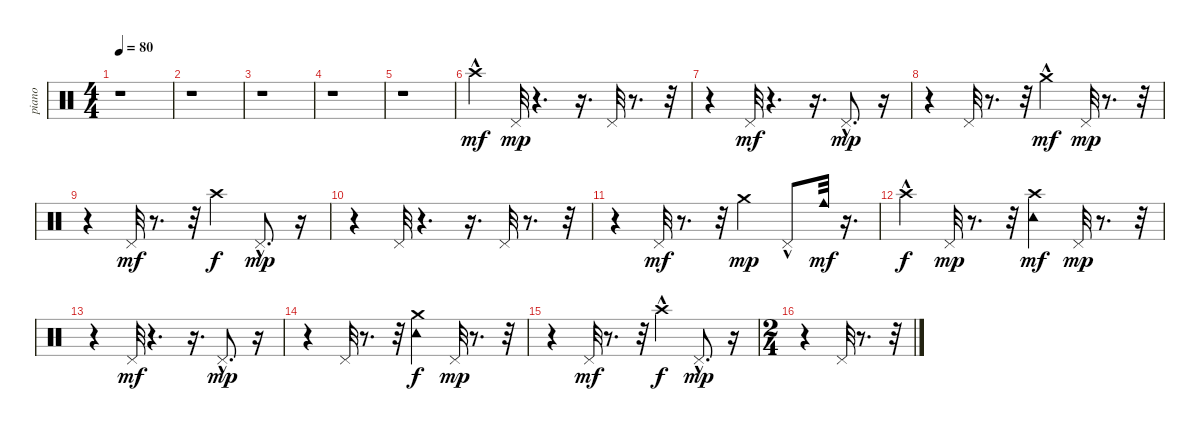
\track ("piano" "piano") {instrument percussion}
\staff {score}
\articulation defaults
\ts (4 4)
\tempo 80
\clef neutral
\ks c
r.1{dy mf} |
r.1 |
r.1 |
r.1 |
r.1 |
"Crash high (hit)"{hac}.4 "Pedal Hi-Hat (hit)".32{dy mp} r.4{d} r.16{d} "Pedal Hi-Hat (hit)".32 r.8{d} r.32 |
r.4 "Pedal Hi-Hat (hit)".32{dy mf} r.4{d} r.16{d} "Pedal Hi-Hat (hit)"{hac}.8{d dy mp} r.16 |
r.4 "Pedal Hi-Hat (hit)".32 r.8{d} r.32 "Crash medium (hit)"{hac}.4{dy mf} "Pedal Hi-Hat (hit)".32{dy mp} r.8{d} r.32 |
r.4 "Pedal Hi-Hat (hit)".32{dy mf} r.8{d} r.32 "Crash high (hit)".4{dy f} "Pedal Hi-Hat (hit)"{hac}.8{d dy mp} r.16 |
r.4 "Pedal Hi-Hat (hit)".32 r.4{d} r.16{d} "Pedal Hi-Hat (hit)".32 r.8{d} r.32 |
r.4 "Pedal Hi-Hat (hit)".32{dy mf} r.8{d} r.32 "Crash medium (hit)".4{dy mp} "Pedal Hi-Hat (hit)"{hac}.8 "Cowbell medium (hit)".32{dy mf} r.16{d} |
"Crash high (hit)"{hac}.4{dy f} "Pedal Hi-Hat (hit)".32{dy mp} r.8{d} r.32 ("Crash high (hit)" "Tambourine (hit)").4{dy mf} "Pedal Hi-Hat (hit)".32{dy mp} r.8{d} r.32 |
r.4 "Pedal Hi-Hat (hit)".32{dy mf} r.4{d} r.16{d} "Pedal Hi-Hat (hit)"{hac}.8{d dy mp} r.16 |
r.4 "Pedal Hi-Hat (hit)".32 r.8{d} r.32 ("Tambourine (hit)" "Crash medium (hit)").4{dy f} "Pedal Hi-Hat (hit)".32{dy mp} r.8{d} r.32 |
r.4 "Pedal Hi-Hat (hit)".32{dy mf} r.8{d} r.32 "Crash high (hit)"{hac}.4{dy f} "Pedal Hi-Hat (hit)"{hac}.8{d dy mp} r.16 |
\ts (2 4)
r.4 "Pedal Hi-Hat (hit)".32 r.8{d} r.32
